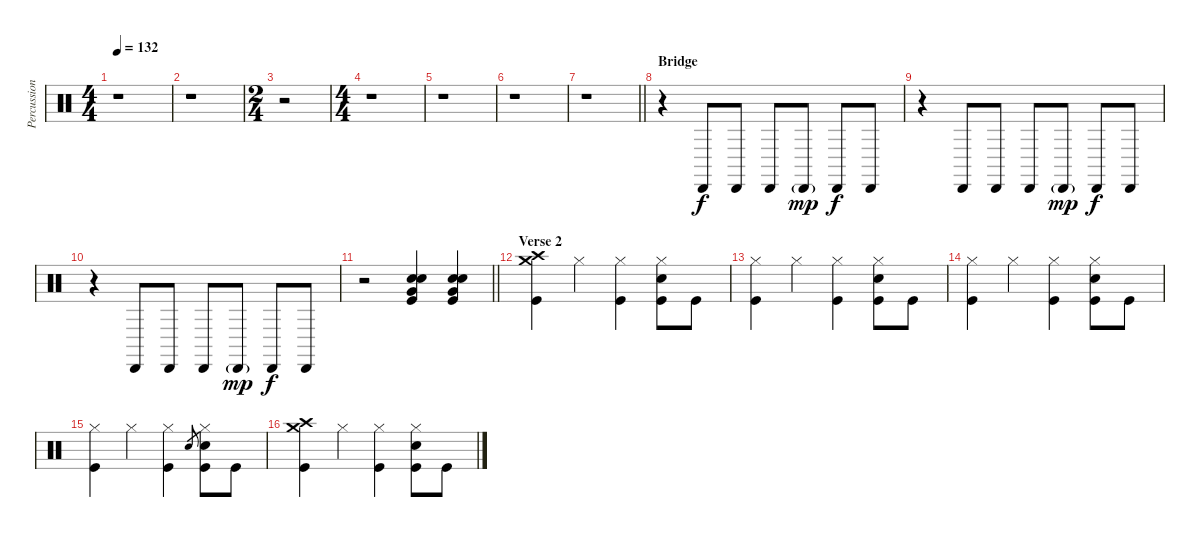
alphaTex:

\track ("Percussion" "Percussion") {instrument percussion}
\staff {score}
\articulation defaults
\ts (4 4)
\tempo 132
\clef neutral
\ks c
r.1{dy f} |
r.1 |
\ts (2 4)
r.2 |
\ts (4 4)
r.1 |
r.1 |
r.1 |
\barLineRight lightlight
r.1 |
\section ("" "Bridge")
r.4{volume 8} "Cabasa (hit)".8 "Cabasa (hit)".8 "Cabasa (hit)".8 "Cabasa (hit)"{g}.8{dy mp} "Cabasa (hit)".8{dy f} "Cabasa (hit)".8 |
r.4 "Cabasa (hit)".8 "Cabasa (hit)".8 "Cabasa (hit)".8 "Cabasa (hit)"{g}.8{dy mp} "Cabasa (hit)".8{dy f} "Cabasa (hit)".8 |
r.4 "Cabasa (hit)".8 "Cabasa (hit)".8 "Cabasa (hit)".8 "Cabasa (hit)"{g}.8{dy mp} "Cabasa (hit)".8{dy f} "Cabasa (hit)".8 |
\barLineRight lightlight
r.2{volume 13} ("Electric Snare (hit)" "Snare (hit) 2" "Very Low Tom (hit)" "Kick (hit)").4 ("Electric Snare (hit)" "Snare (hit) 2" "Very Low Tom (hit)" "Kick (hit)").4 |
\section ("" "Verse 2")
("Crash high (hit)" "Crash medium (hit)" "Kick (hit)").4 "Hi-Hat (closed)".4 ("Hi-Hat (closed)" "Kick (hit)").4 ("Hi-Hat (closed)" "Electric Snare (hit)" "Kick (hit)").8 "Kick (hit)".8 |
("Hi-Hat (closed)" "Kick (hit)").4 "Hi-Hat (closed)".4 ("Hi-Hat (closed)" "Kick (hit)").4 ("Hi-Hat (closed)" "Electric Snare (hit)" "Kick (hit)").8 "Kick (hit)".8 |
("Hi-Hat (closed)" "Kick (hit)").4 "Hi-Hat (closed)".4 ("Hi-Hat (closed)" "Kick (hit)").4 ("Hi-Hat (closed)" "Electric Snare (hit)" "Kick (hit)").8 "Kick (hit)".8 |
("Hi-Hat (closed)" "Kick (hit)").4 "Hi-Hat (closed)".4 ("Hi-Hat (closed)" "Kick (hit)").4 "Electric Snare (hit)".8{gr} ("Hi-Hat (closed)" "Electric Snare (hit)" "Kick (hit)").8 "Kick (hit)".8 |
("Crash high (hit)" "Crash medium (hit)" "Kick (hit)").4 "Hi-Hat (closed)".4 ("Hi-Hat (closed)" "Kick (hit)").4 ("Hi-Hat (closed)" "Electric Snare (hit)" "Kick (hit)").8 "Kick (hit)".8
